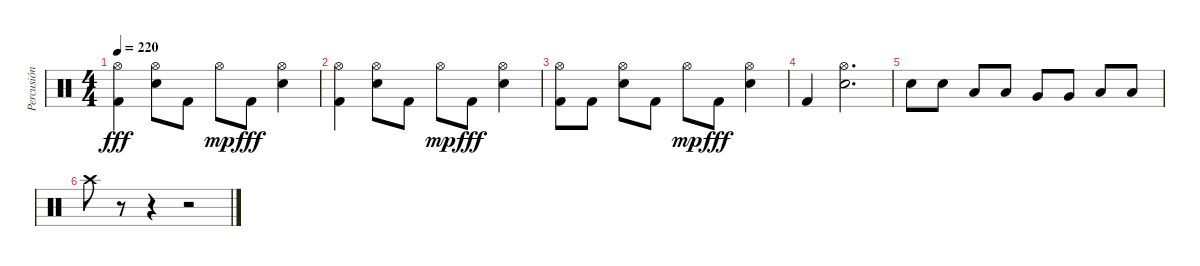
\track ("Percusión" "Percusión") {instrument percussion}
\staff {score}
\articulation defaults
\ts (4 4)
\tempo 220
\clef neutral
\ks c
("Hi-Hat (open)" "Kick (hit) 2").4{dy fff} ("Hi-Hat (open)" "Snare (hit) 2").8 "Kick (hit) 2".8 "Hi-Hat (open)".8{dy mp} "Kick (hit) 2".8{dy fff} ("Hi-Hat (open)" "Snare (hit) 2").4 |
("Hi-Hat (open)" "Kick (hit) 2").4 ("Hi-Hat (open)" "Snare (hit) 2").8 "Kick (hit) 2".8 "Hi-Hat (open)".8{dy mp} "Kick (hit) 2".8{dy fff} ("Hi-Hat (open)" "Snare (hit) 2").4 |
("Hi-Hat (open)" "Kick (hit) 2").8 "Kick (hit) 2".8 ("Hi-Hat (open)" "Snare (hit) 2").8 "Kick (hit) 2".8 "Hi-Hat (open)".8{dy mp} "Kick (hit) 2".8{dy fff} ("Hi-Hat (open)" "Snare (hit) 2").4 |
"Kick (hit) 2".4 ("Hi-Hat (open)" "Electric Snare (hit)").2{d} |
"Electric Snare (hit)".8 "Electric Snare (hit)".8 "Low Tom (hit)".8 "Low Tom (hit)".8 "Very Low Tom (hit)".8 "Very Low Tom (hit)".8 "Low Floor Tom (hit)".8 "Low Floor Tom (hit)".8 |
"Crash high (hit)".8 r.8 r.4 r.2
